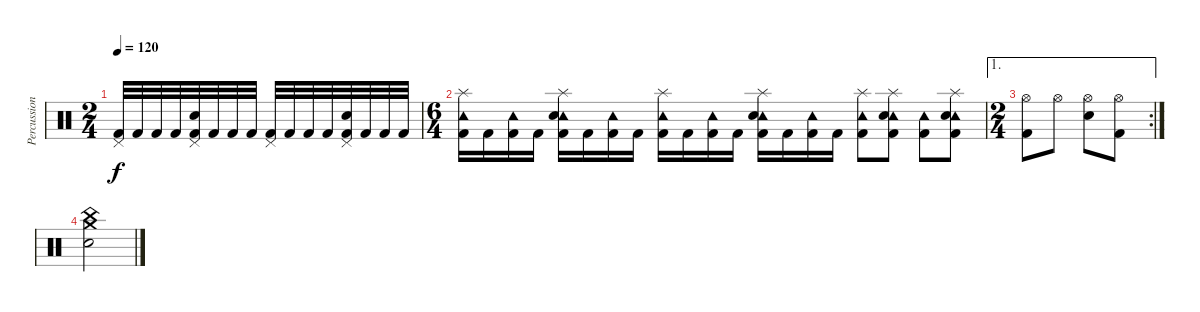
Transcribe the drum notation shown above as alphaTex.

\track ("Percussioni" "Percussion") {instrument percussion}
\staff {score}
\articulation defaults
\ts (2 4)
\tempo 120
\clef neutral
\ks c
("Pedal Hi-Hat (hit)" "Kick (hit) 2").32{dy f} "Kick (hit) 2".32 "Kick (hit) 2".32 "Kick (hit) 2".32 ("Pedal Hi-Hat (hit)" "Snare (hit) 2" "Kick (hit) 2").32 "Kick (hit) 2".32 "Kick (hit) 2".32 "Kick (hit) 2".32 ("Pedal Hi-Hat (hit)" "Kick (hit) 2").32 "Kick (hit) 2".32 "Kick (hit) 2".32 "Kick (hit) 2".32 ("Pedal Hi-Hat (hit)" "Snare (hit) 2" "Kick (hit) 2").32 "Kick (hit) 2".32 "Kick (hit) 2".32 "Kick (hit) 2".32 |
\ts (6 4)
("Tambourine (hit)" "Splash (hit)" "Kick (hit) 2").16 "Kick (hit) 2".16 ("Tambourine (hit)" "Kick (hit) 2").16 "Kick (hit) 2".16 ("Tambourine (hit)" "Splash (hit)" "Snare (hit) 2" "Kick (hit) 2").16 "Kick (hit) 2".16 ("Tambourine (hit)" "Kick (hit) 2").16 "Kick (hit) 2".16 ("Tambourine (hit)" "Splash (hit)" "Kick (hit) 2").16 "Kick (hit) 2".16 ("Tambourine (hit)" "Kick (hit) 2").16 "Kick (hit) 2".16 ("Tambourine (hit)" "Splash (hit)" "Snare (hit) 2" "Kick (hit) 2").16 "Kick (hit) 2".16 ("Tambourine (hit)" "Kick (hit) 2").16 "Kick (hit) 2".16 ("Tambourine (hit)" "Splash (hit)" "Kick (hit) 2").8 ("Tambourine (hit)" "Splash (hit)" "Snare (hit) 2" "Kick (hit) 2").8 ("Tambourine (hit)" "Kick (hit) 2").8 ("Tambourine (hit)" "Splash (hit)" "Snare (hit) 2" "Kick (hit) 2").8 |
\ae 1
\rc 2
\ts (2 4)
("Hi-Hat (open)" "Kick (hit) 2").8 "Hi-Hat (open)".8 ("Hi-Hat (open)" "Snare (hit) 2").8 ("Hi-Hat (open)" "Kick (hit) 2").8 |
("Crash medium (hit)" "China (hit)" "Snare (hit) 2").2
